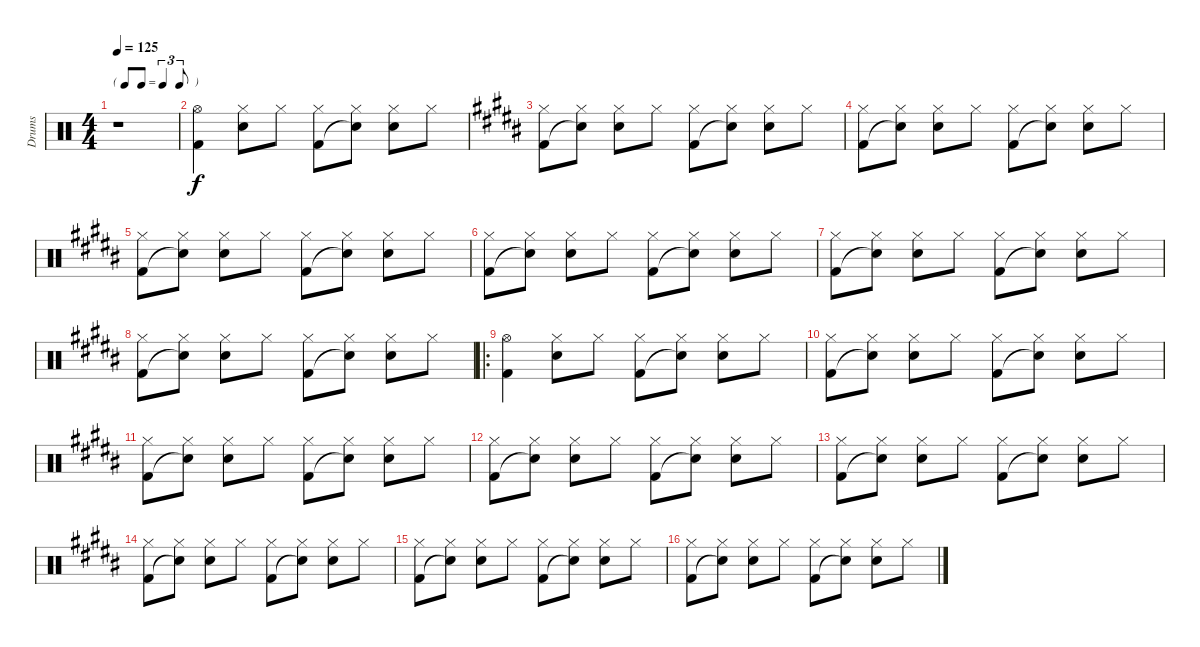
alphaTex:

\track ("Drums" "Drums") {instrument percussion}
\staff {score}
\articulation defaults
\ts (4 4)
\tf triplet8th
\tempo 125
\clef neutral
\ks c
r.1{dy f} |
("Hi-Hat (open)" "Kick (hit) 2").4 ("Hi-Hat (closed)" "Snare (hit) 2").8 "Hi-Hat (closed)".8 ("Hi-Hat (closed)" "Kick (hit) 2").8 ("Hi-Hat (closed)" "Snare (hit)"{t}).8 ("Hi-Hat (closed)" "Snare (hit) 2").8 "Hi-Hat (closed)".8 |
\ks b
("Hi-Hat (closed)" "Kick (hit) 2").8 ("Hi-Hat (closed)" "Snare (hit)"{t}).8 ("Hi-Hat (closed)" "Snare (hit) 2").8 "Hi-Hat (closed)".8 ("Hi-Hat (closed)" "Kick (hit) 2").8 ("Hi-Hat (closed)" "Snare (hit)"{t}).8 ("Hi-Hat (closed)" "Snare (hit) 2").8 "Hi-Hat (closed)".8 |
("Hi-Hat (closed)" "Kick (hit) 2").8 ("Hi-Hat (closed)" "Snare (hit)"{t}).8 ("Hi-Hat (closed)" "Snare (hit) 2").8 "Hi-Hat (closed)".8 ("Hi-Hat (closed)" "Kick (hit) 2").8 ("Hi-Hat (closed)" "Snare (hit)"{t}).8 ("Hi-Hat (closed)" "Snare (hit) 2").8 "Hi-Hat (closed)".8 |
("Hi-Hat (closed)" "Kick (hit) 2").8 ("Hi-Hat (closed)" "Snare (hit)"{t}).8 ("Hi-Hat (closed)" "Snare (hit) 2").8 "Hi-Hat (closed)".8 ("Hi-Hat (closed)" "Kick (hit) 2").8 ("Hi-Hat (closed)" "Snare (hit)"{t}).8 ("Hi-Hat (closed)" "Snare (hit) 2").8 "Hi-Hat (closed)".8 |
("Hi-Hat (closed)" "Kick (hit) 2").8 ("Hi-Hat (closed)" "Snare (hit)"{t}).8 ("Hi-Hat (closed)" "Snare (hit) 2").8 "Hi-Hat (closed)".8 ("Hi-Hat (closed)" "Kick (hit) 2").8 ("Hi-Hat (closed)" "Snare (hit)"{t}).8 ("Hi-Hat (closed)" "Snare (hit) 2").8 "Hi-Hat (closed)".8 |
("Hi-Hat (closed)" "Kick (hit) 2").8 ("Hi-Hat (closed)" "Snare (hit)"{t}).8 ("Hi-Hat (closed)" "Snare (hit) 2").8 "Hi-Hat (closed)".8 ("Hi-Hat (closed)" "Kick (hit) 2").8 ("Hi-Hat (closed)" "Snare (hit)"{t}).8 ("Hi-Hat (closed)" "Snare (hit) 2").8 "Hi-Hat (closed)".8 |
("Hi-Hat (closed)" "Kick (hit) 2").8 ("Hi-Hat (closed)" "Snare (hit)"{t}).8 ("Hi-Hat (closed)" "Snare (hit) 2").8 "Hi-Hat (closed)".8 ("Hi-Hat (closed)" "Kick (hit) 2").8 ("Hi-Hat (closed)" "Snare (hit)"{t}).8 ("Hi-Hat (closed)" "Snare (hit) 2").8 "Hi-Hat (closed)".8 |
\ro
("Hi-Hat (open)" "Kick (hit) 2").4 ("Hi-Hat (closed)" "Snare (hit) 2").8 "Hi-Hat (closed)".8 ("Hi-Hat (closed)" "Kick (hit) 2").8 ("Hi-Hat (closed)" "Snare (hit)"{t}).8 ("Hi-Hat (closed)" "Snare (hit) 2").8 "Hi-Hat (closed)".8 |
("Hi-Hat (closed)" "Kick (hit) 2").8 ("Hi-Hat (closed)" "Snare (hit)"{t}).8 ("Hi-Hat (closed)" "Snare (hit) 2").8 "Hi-Hat (closed)".8 ("Hi-Hat (closed)" "Kick (hit) 2").8 ("Hi-Hat (closed)" "Snare (hit)"{t}).8 ("Hi-Hat (closed)" "Snare (hit) 2").8 "Hi-Hat (closed)".8 |
("Hi-Hat (closed)" "Kick (hit) 2").8 ("Hi-Hat (closed)" "Snare (hit)"{t}).8 ("Hi-Hat (closed)" "Snare (hit) 2").8 "Hi-Hat (closed)".8 ("Hi-Hat (closed)" "Kick (hit) 2").8 ("Hi-Hat (closed)" "Snare (hit)"{t}).8 ("Hi-Hat (closed)" "Snare (hit) 2").8 "Hi-Hat (closed)".8 |
("Hi-Hat (closed)" "Kick (hit) 2").8 ("Hi-Hat (closed)" "Snare (hit)"{t}).8 ("Hi-Hat (closed)" "Snare (hit) 2").8 "Hi-Hat (closed)".8 ("Hi-Hat (closed)" "Kick (hit) 2").8 ("Hi-Hat (closed)" "Snare (hit)"{t}).8 ("Hi-Hat (closed)" "Snare (hit) 2").8 "Hi-Hat (closed)".8 |
("Hi-Hat (closed)" "Kick (hit) 2").8 ("Hi-Hat (closed)" "Snare (hit)"{t}).8 ("Hi-Hat (closed)" "Snare (hit) 2").8 "Hi-Hat (closed)".8 ("Hi-Hat (closed)" "Kick (hit) 2").8 ("Hi-Hat (closed)" "Snare (hit)"{t}).8 ("Hi-Hat (closed)" "Snare (hit) 2").8 "Hi-Hat (closed)".8 |
("Hi-Hat (closed)" "Kick (hit) 2").8 ("Hi-Hat (closed)" "Snare (hit)"{t}).8 ("Hi-Hat (closed)" "Snare (hit) 2").8 "Hi-Hat (closed)".8 ("Hi-Hat (closed)" "Kick (hit) 2").8 ("Hi-Hat (closed)" "Snare (hit)"{t}).8 ("Hi-Hat (closed)" "Snare (hit) 2").8 "Hi-Hat (closed)".8 |
("Hi-Hat (closed)" "Kick (hit) 2").8 ("Hi-Hat (closed)" "Snare (hit)"{t}).8 ("Hi-Hat (closed)" "Snare (hit) 2").8 "Hi-Hat (closed)".8 ("Hi-Hat (closed)" "Kick (hit) 2").8 ("Hi-Hat (closed)" "Snare (hit)"{t}).8 ("Hi-Hat (closed)" "Snare (hit) 2").8 "Hi-Hat (closed)".8 |
("Hi-Hat (closed)" "Kick (hit) 2").8 ("Hi-Hat (closed)" "Snare (hit)"{t}).8 ("Hi-Hat (closed)" "Snare (hit) 2").8 "Hi-Hat (closed)".8 ("Hi-Hat (closed)" "Kick (hit) 2").8 ("Hi-Hat (closed)" "Snare (hit)"{t}).8 ("Hi-Hat (closed)" "Snare (hit) 2").8 "Hi-Hat (closed)".8
